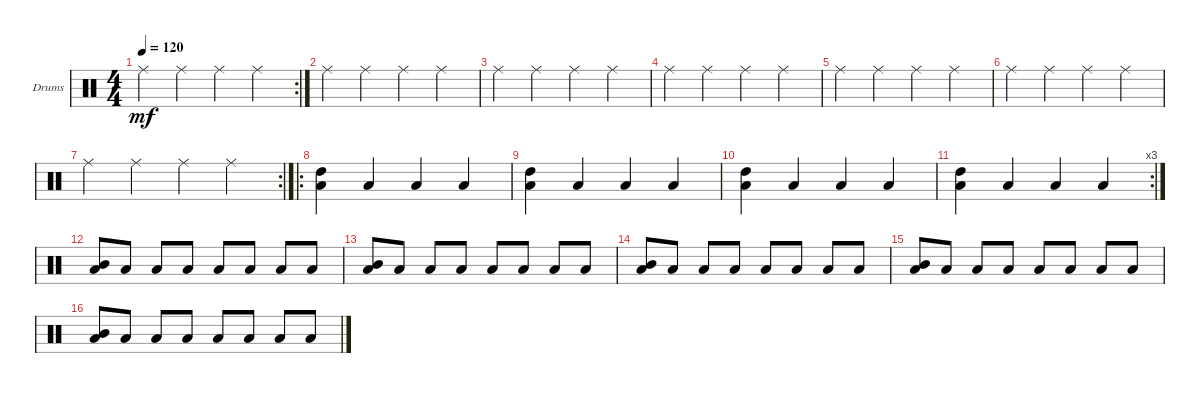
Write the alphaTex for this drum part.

\defaultSystemsLayout 4
\bracketExtendMode groupsimilarinstruments
\firstSystemTrackNameOrientation horizontal
\otherSystemsTrackNameOrientation horizontal
\track ("Drumkit" "Drums") {instrument percussion}
\staff {score}
\articulation defaults
\rc 2
\ts (4 4)
\tempo 120
\clef neutral
\ks c "Ride (middle)".4{dy mf} "Ride (middle)".4 "Ride (middle)".4 "Ride (middle)".4
|
"Ride (middle)".4 "Ride (middle)".4 "Ride (middle)".4 "Ride (middle)".4 |
"Ride (middle)".4 "Ride (middle)".4 "Ride (middle)".4 "Ride (middle)".4 |
"Ride (middle)".4 "Ride (middle)".4 "Ride (middle)".4 "Ride (middle)".4 |
"Ride (middle)".4 "Ride (middle)".4 "Ride (middle)".4 "Ride (middle)".4 |
"Ride (middle)".4 "Ride (middle)".4 "Ride (middle)".4 "Ride (middle)".4 |
\rc 2 "Ride (middle)".4 "Ride (middle)".4 "Ride (middle)".4 "Ride (middle)".4
|
\ro
("High Tom (hit)" "Low Tom (hit)").4 "Low Tom (hit)".4 "Low Tom (hit)".4 "Low Tom (hit)".4 |
("Low Tom (hit)" "High Tom (hit)").4 "Low Tom (hit)".4 "Low Tom (hit)".4 "Low Tom (hit)".4 |
("Low Tom (hit)" "High Tom (hit)").4 "Low Tom (hit)".4 "Low Tom (hit)".4 "Low Tom (hit)".4 |
\rc 3
("Low Tom (hit)" "High Tom (hit)").4 "Low Tom (hit)".4 "Low Tom (hit)".4 "Low Tom (hit)".4 |
("Low Tom (hit)" "Mid Tom (hit)").8 "Low Tom (hit)".8 "Low Tom (hit)".8 "Low Tom (hit)".8 "Low Tom (hit)".8 "Low Tom (hit)".8 "Low Tom (hit)".8 "Low Tom (hit)".8 |
("Low Tom (hit)" "Mid Tom (hit)").8 "Low Tom (hit)".8 "Low Tom (hit)".8 "Low Tom (hit)".8 "Low Tom (hit)".8 "Low Tom (hit)".8 "Low Tom (hit)".8 "Low Tom (hit)".8 |
("Low Tom (hit)" "Mid Tom (hit)").8 "Low Tom (hit)".8 "Low Tom (hit)".8 "Low Tom (hit)".8 "Low Tom (hit)".8 "Low Tom (hit)".8 "Low Tom (hit)".8 "Low Tom (hit)".8 |
("Low Tom (hit)" "Mid Tom (hit)").8 "Low Tom (hit)".8 "Low Tom (hit)".8 "Low Tom (hit)".8 "Low Tom (hit)".8 "Low Tom (hit)".8 "Low Tom (hit)".8 "Low Tom (hit)".8 |
("Low Tom (hit)" "Mid Tom (hit)").8 "Low Tom (hit)".8 "Low Tom (hit)".8 "Low Tom (hit)".8 "Low Tom (hit)".8 "Low Tom (hit)".8 "Low Tom (hit)".8 "Low Tom (hit)".8
